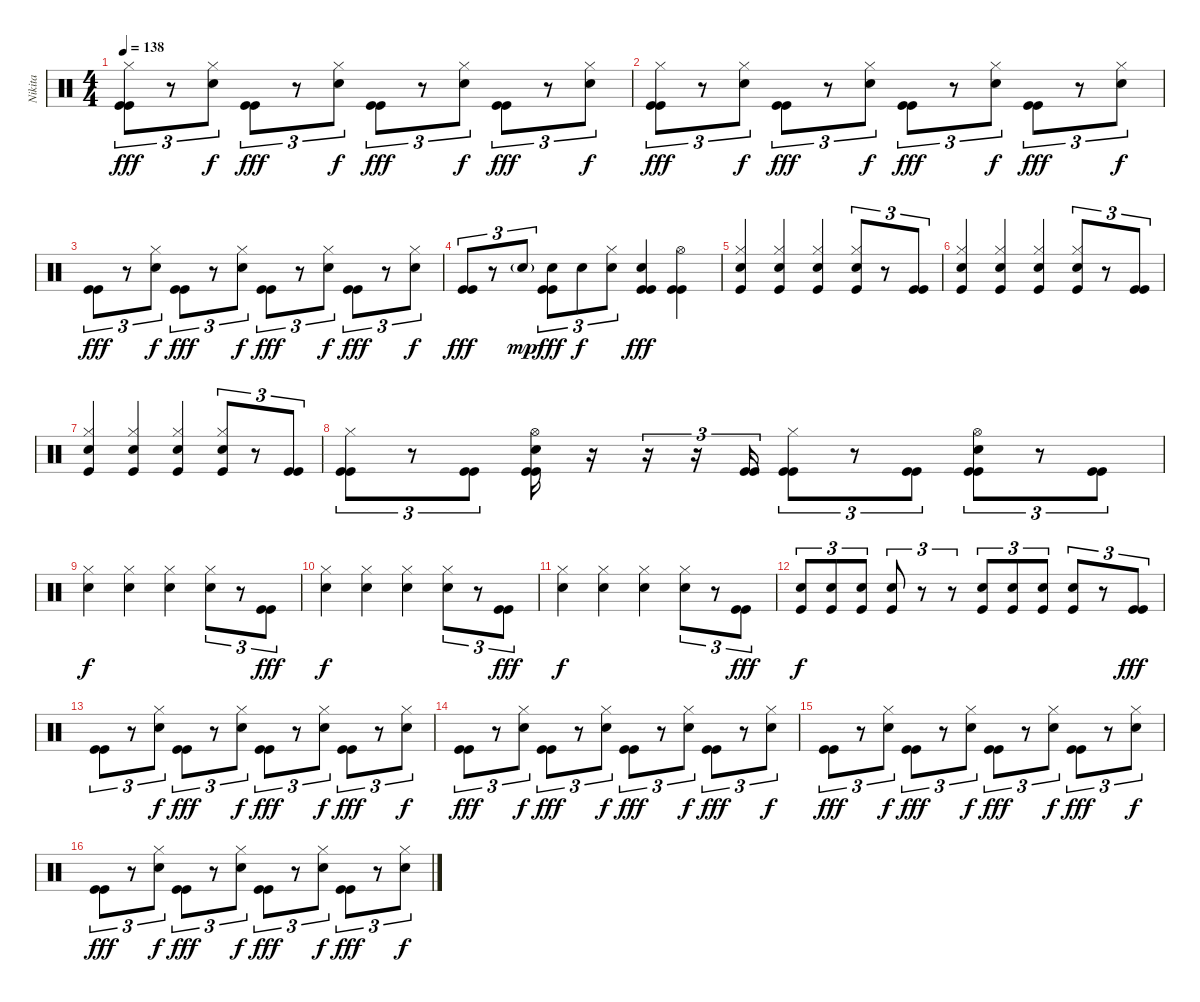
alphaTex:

\track ("Nikita" "Nikita") {instrument percussion}
\staff {score}
\articulation defaults
\ts (4 4)
\tempo 138
\clef neutral
\ks c
("Kick (hit)" "Kick (hit)" "Hi-Hat (closed)").8{tu (3 2) dy fff} r.8{tu (3 2)} ("Snare (hit) 2" "Hi-Hat (closed)").8{tu (3 2) dy f} ("Kick (hit)" "Kick (hit)").8{tu (3 2) dy fff} r.8{tu (3 2)} ("Snare (hit) 2" "Hi-Hat (closed)").8{tu (3 2) dy f} ("Kick (hit)" "Kick (hit)").8{tu (3 2) dy fff} r.8{tu (3 2)} ("Snare (hit) 2" "Hi-Hat (closed)").8{tu (3 2) dy f} ("Kick (hit)" "Kick (hit)").8{tu (3 2) dy fff} r.8{tu (3 2)} ("Snare (hit) 2" "Hi-Hat (closed)").8{tu (3 2) dy f} |
("Kick (hit)" "Kick (hit)" "Hi-Hat (closed)").8{tu (3 2) dy fff} r.8{tu (3 2)} ("Snare (hit) 2" "Hi-Hat (closed)").8{tu (3 2) dy f} ("Kick (hit)" "Kick (hit)").8{tu (3 2) dy fff} r.8{tu (3 2)} ("Snare (hit) 2" "Hi-Hat (closed)").8{tu (3 2) dy f} ("Kick (hit)" "Kick (hit)").8{tu (3 2) dy fff} r.8{tu (3 2)} ("Snare (hit) 2" "Hi-Hat (closed)").8{tu (3 2) dy f} ("Kick (hit)" "Kick (hit)").8{tu (3 2) dy fff} r.8{tu (3 2)} ("Snare (hit) 2" "Hi-Hat (closed)").8{tu (3 2) dy f} |
("Kick (hit)" "Kick (hit)").8{tu (3 2) dy fff} r.8{tu (3 2)} ("Snare (hit) 2" "Hi-Hat (closed)").8{tu (3 2) dy f} ("Kick (hit)" "Kick (hit)").8{tu (3 2) dy fff} r.8{tu (3 2)} ("Snare (hit) 2" "Hi-Hat (closed)").8{tu (3 2) dy f} ("Kick (hit)" "Kick (hit)").8{tu (3 2) dy fff} r.8{tu (3 2)} ("Snare (hit) 2" "Hi-Hat (closed)").8{tu (3 2) dy f} ("Kick (hit)" "Kick (hit)").8{tu (3 2) dy fff} r.8{tu (3 2)} ("Snare (hit) 2" "Hi-Hat (closed)").8{tu (3 2) dy f} |
("Kick (hit)" "Kick (hit)").8{tu (3 2) dy fff} r.8{tu (3 2)} "Electric Snare (hit)"{g}.8{tu (3 2) dy mp} ("Kick (hit)" "Kick (hit)" "Electric Snare (hit)").8{tu (3 2) dy fff} "Electric Snare (hit)".8{tu (3 2) dy f} ("Electric Snare (hit)" "Hi-Hat (closed)").8{tu (3 2)} ("Kick (hit)" "Kick (hit)" "Electric Snare (hit)").4{dy fff} ("Kick (hit)" "Kick (hit)" "Hi-Hat (open)").4 |
\section ("" "")
("Kick (hit)" "Snare (hit) 2" "Hi-Hat (closed)").4 ("Kick (hit)" "Snare (hit) 2" "Hi-Hat (closed)").4 ("Kick (hit)" "Snare (hit) 2" "Hi-Hat (closed)").4 ("Kick (hit)" "Snare (hit) 2" "Hi-Hat (closed)").8{tu (3 2)} r.8{tu (3 2)} ("Kick (hit)" "Kick (hit)").8{tu (3 2)} |
("Kick (hit)" "Snare (hit) 2" "Hi-Hat (closed)").4 ("Kick (hit)" "Snare (hit) 2" "Hi-Hat (closed)").4 ("Kick (hit)" "Snare (hit) 2" "Hi-Hat (closed)").4 ("Kick (hit)" "Snare (hit) 2" "Hi-Hat (closed)").8{tu (3 2)} r.8{tu (3 2)} ("Kick (hit)" "Kick (hit)").8{tu (3 2)} |
("Kick (hit)" "Snare (hit) 2" "Hi-Hat (closed)").4 ("Kick (hit)" "Snare (hit) 2" "Hi-Hat (closed)").4 ("Kick (hit)" "Snare (hit) 2" "Hi-Hat (closed)").4 ("Kick (hit)" "Snare (hit) 2" "Hi-Hat (closed)").8{tu (3 2)} r.8{tu (3 2)} ("Kick (hit)" "Kick (hit)").8{tu (3 2)} |
("Kick (hit)" "Kick (hit)" "Hi-Hat (closed)").8{tu (3 2)} r.8{tu (3 2)} ("Kick (hit)" "Kick (hit)").8{tu (3 2)} ("Kick (hit)" "Kick (hit)" "Snare (hit) 2" "Hi-Hat (open)").16 r.16 r.16{tu (3 2)} r.16{tu (3 2)} ("Kick (hit)" "Kick (hit)").16{tu (3 2)} ("Kick (hit)" "Kick (hit)" "Hi-Hat (closed)").8{tu (3 2)} r.8{tu (3 2)} ("Kick (hit)" "Kick (hit)").8{tu (3 2)} ("Kick (hit)" "Kick (hit)" "Snare (hit) 2" "Hi-Hat (open)").8{tu (3 2)} r.8{tu (3 2)} ("Kick (hit)" "Kick (hit)").8{tu (3 2)} |
("Snare (hit) 2" "Hi-Hat (closed)").4{dy f} ("Snare (hit) 2" "Hi-Hat (closed)").4 ("Snare (hit) 2" "Hi-Hat (closed)").4 ("Snare (hit) 2" "Hi-Hat (closed)").8{tu (3 2)} r.8{tu (3 2)} ("Kick (hit)" "Kick (hit)").8{tu (3 2) dy fff} |
("Snare (hit) 2" "Hi-Hat (closed)").4{dy f} ("Snare (hit) 2" "Hi-Hat (closed)").4 ("Snare (hit) 2" "Hi-Hat (closed)").4 ("Snare (hit) 2" "Hi-Hat (closed)").8{tu (3 2)} r.8{tu (3 2)} ("Kick (hit)" "Kick (hit)").8{tu (3 2) dy fff} |
("Snare (hit) 2" "Hi-Hat (closed)").4{dy f} ("Snare (hit) 2" "Hi-Hat (closed)").4 ("Snare (hit) 2" "Hi-Hat (closed)").4 ("Snare (hit) 2" "Hi-Hat (closed)").8{tu (3 2)} r.8{tu (3 2)} ("Kick (hit)" "Kick (hit)").8{tu (3 2) dy fff} |
("Kick (hit)" "Snare (hit) 2").8{tu (3 2) dy f} ("Kick (hit)" "Snare (hit) 2").8{tu (3 2)} ("Kick (hit)" "Snare (hit) 2").8{tu (3 2)} ("Kick (hit)" "Snare (hit) 2").8{tu (3 2)} r.8{tu (3 2)} r.8{tu (3 2)} ("Kick (hit)" "Snare (hit) 2").8{tu (3 2)} ("Kick (hit)" "Snare (hit) 2").8{tu (3 2)} ("Kick (hit)" "Snare (hit) 2").8{tu (3 2)} ("Kick (hit)" "Snare (hit) 2").8{tu (3 2)} r.8{tu (3 2)} ("Kick (hit)" "Kick (hit)").8{tu (3 2) dy fff} |
("Kick (hit)" "Kick (hit)").8{tu (3 2)} r.8{tu (3 2)} ("Snare (hit) 2" "Hi-Hat (closed)").8{tu (3 2) dy f} ("Kick (hit)" "Kick (hit)").8{tu (3 2) dy fff} r.8{tu (3 2)} ("Snare (hit) 2" "Hi-Hat (closed)").8{tu (3 2) dy f} ("Kick (hit)" "Kick (hit)").8{tu (3 2) dy fff} r.8{tu (3 2)} ("Snare (hit) 2" "Hi-Hat (closed)").8{tu (3 2) dy f} ("Kick (hit)" "Kick (hit)").8{tu (3 2) dy fff} r.8{tu (3 2)} ("Snare (hit) 2" "Hi-Hat (closed)").8{tu (3 2) dy f} |
("Kick (hit)" "Kick (hit)").8{tu (3 2) dy fff} r.8{tu (3 2)} ("Snare (hit) 2" "Hi-Hat (closed)").8{tu (3 2) dy f} ("Kick (hit)" "Kick (hit)").8{tu (3 2) dy fff} r.8{tu (3 2)} ("Snare (hit) 2" "Hi-Hat (closed)").8{tu (3 2) dy f} ("Kick (hit)" "Kick (hit)").8{tu (3 2) dy fff} r.8{tu (3 2)} ("Snare (hit) 2" "Hi-Hat (closed)").8{tu (3 2) dy f} ("Kick (hit)" "Kick (hit)").8{tu (3 2) dy fff} r.8{tu (3 2)} ("Snare (hit) 2" "Hi-Hat (closed)").8{tu (3 2) dy f} |
("Kick (hit)" "Kick (hit)").8{tu (3 2) dy fff} r.8{tu (3 2)} ("Snare (hit) 2" "Hi-Hat (closed)").8{tu (3 2) dy f} ("Kick (hit)" "Kick (hit)").8{tu (3 2) dy fff} r.8{tu (3 2)} ("Snare (hit) 2" "Hi-Hat (closed)").8{tu (3 2) dy f} ("Kick (hit)" "Kick (hit)").8{tu (3 2) dy fff} r.8{tu (3 2)} ("Snare (hit) 2" "Hi-Hat (closed)").8{tu (3 2) dy f} ("Kick (hit)" "Kick (hit)").8{tu (3 2) dy fff} r.8{tu (3 2)} ("Snare (hit) 2" "Hi-Hat (closed)").8{tu (3 2) dy f} |
("Kick (hit)" "Kick (hit)").8{tu (3 2) dy fff} r.8{tu (3 2)} ("Snare (hit) 2" "Hi-Hat (closed)").8{tu (3 2) dy f} ("Kick (hit)" "Kick (hit)").8{tu (3 2) dy fff} r.8{tu (3 2)} ("Snare (hit) 2" "Hi-Hat (closed)").8{tu (3 2) dy f} ("Kick (hit)" "Kick (hit)").8{tu (3 2) dy fff} r.8{tu (3 2)} ("Snare (hit) 2" "Hi-Hat (closed)").8{tu (3 2) dy f} ("Kick (hit)" "Kick (hit)").8{tu (3 2) dy fff} r.8{tu (3 2)} ("Snare (hit) 2" "Hi-Hat (closed)").8{tu (3 2) dy f}
